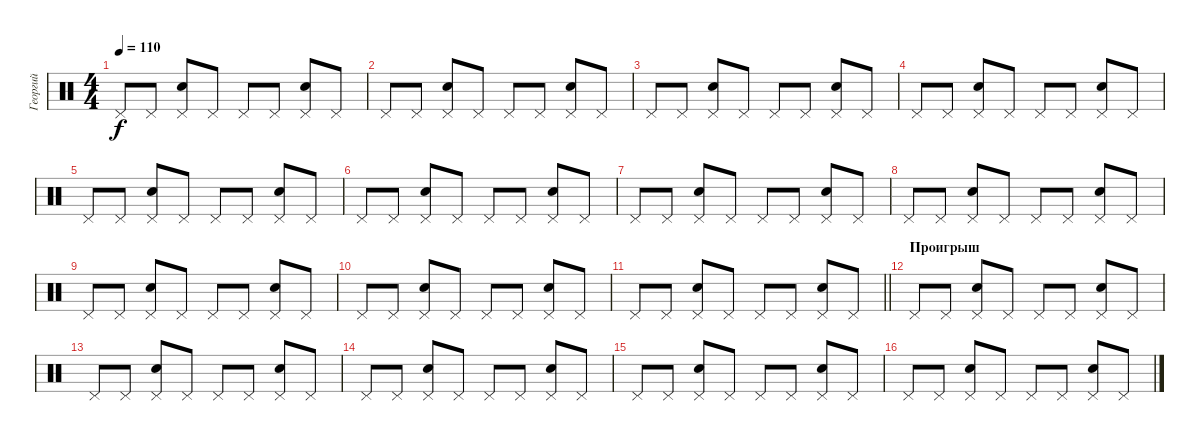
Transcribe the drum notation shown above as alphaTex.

\track ("Георгий" "Георгий") {instrument percussion}
\staff {score}
\articulation defaults
\ts (4 4)
\tempo 110
\clef neutral
\ks c "Pedal Hi-Hat (hit)".8{dy f} "Pedal Hi-Hat (hit)".8
("Pedal Hi-Hat (hit)" "Snare (hit) 2").8 "Pedal Hi-Hat (hit)".8 "Pedal Hi-Hat (hit)".8 "Pedal Hi-Hat (hit)".8 ("Pedal Hi-Hat (hit)" "Snare (hit) 2").8 "Pedal Hi-Hat (hit)".8 |
"Pedal Hi-Hat (hit)".8 "Pedal Hi-Hat (hit)".8 ("Pedal Hi-Hat (hit)" "Snare (hit) 2").8 "Pedal Hi-Hat (hit)".8 "Pedal Hi-Hat (hit)".8 "Pedal Hi-Hat (hit)".8 ("Pedal Hi-Hat (hit)" "Snare (hit) 2").8 "Pedal Hi-Hat (hit)".8 |
"Pedal Hi-Hat (hit)".8 "Pedal Hi-Hat (hit)".8 ("Pedal Hi-Hat (hit)" "Snare (hit) 2").8 "Pedal Hi-Hat (hit)".8 "Pedal Hi-Hat (hit)".8 "Pedal Hi-Hat (hit)".8 ("Pedal Hi-Hat (hit)" "Snare (hit) 2").8 "Pedal Hi-Hat (hit)".8 |
"Pedal Hi-Hat (hit)".8 "Pedal Hi-Hat (hit)".8 ("Pedal Hi-Hat (hit)" "Snare (hit) 2").8 "Pedal Hi-Hat (hit)".8 "Pedal Hi-Hat (hit)".8 "Pedal Hi-Hat (hit)".8 ("Pedal Hi-Hat (hit)" "Snare (hit) 2").8 "Pedal Hi-Hat (hit)".8 |
"Pedal Hi-Hat (hit)".8 "Pedal Hi-Hat (hit)".8 ("Pedal Hi-Hat (hit)" "Snare (hit) 2").8 "Pedal Hi-Hat (hit)".8 "Pedal Hi-Hat (hit)".8 "Pedal Hi-Hat (hit)".8 ("Pedal Hi-Hat (hit)" "Snare (hit) 2").8 "Pedal Hi-Hat (hit)".8 |
"Pedal Hi-Hat (hit)".8 "Pedal Hi-Hat (hit)".8 ("Pedal Hi-Hat (hit)" "Snare (hit) 2").8 "Pedal Hi-Hat (hit)".8 "Pedal Hi-Hat (hit)".8 "Pedal Hi-Hat (hit)".8 ("Pedal Hi-Hat (hit)" "Snare (hit) 2").8 "Pedal Hi-Hat (hit)".8 |
"Pedal Hi-Hat (hit)".8 "Pedal Hi-Hat (hit)".8 ("Pedal Hi-Hat (hit)" "Snare (hit) 2").8 "Pedal Hi-Hat (hit)".8 "Pedal Hi-Hat (hit)".8 "Pedal Hi-Hat (hit)".8 ("Pedal Hi-Hat (hit)" "Snare (hit) 2").8 "Pedal Hi-Hat (hit)".8 |
"Pedal Hi-Hat (hit)".8 "Pedal Hi-Hat (hit)".8 ("Pedal Hi-Hat (hit)" "Snare (hit) 2").8 "Pedal Hi-Hat (hit)".8 "Pedal Hi-Hat (hit)".8 "Pedal Hi-Hat (hit)".8 ("Pedal Hi-Hat (hit)" "Snare (hit) 2").8 "Pedal Hi-Hat (hit)".8 |
"Pedal Hi-Hat (hit)".8 "Pedal Hi-Hat (hit)".8 ("Pedal Hi-Hat (hit)" "Snare (hit) 2").8 "Pedal Hi-Hat (hit)".8 "Pedal Hi-Hat (hit)".8 "Pedal Hi-Hat (hit)".8 ("Pedal Hi-Hat (hit)" "Snare (hit) 2").8 "Pedal Hi-Hat (hit)".8 |
"Pedal Hi-Hat (hit)".8 "Pedal Hi-Hat (hit)".8 ("Pedal Hi-Hat (hit)" "Snare (hit) 2").8 "Pedal Hi-Hat (hit)".8 "Pedal Hi-Hat (hit)".8 "Pedal Hi-Hat (hit)".8 ("Pedal Hi-Hat (hit)" "Snare (hit) 2").8 "Pedal Hi-Hat (hit)".8 |
\barLineRight lightlight "Pedal Hi-Hat (hit)".8 "Pedal Hi-Hat (hit)".8
("Pedal Hi-Hat (hit)" "Snare (hit) 2").8 "Pedal Hi-Hat (hit)".8 "Pedal Hi-Hat (hit)".8 "Pedal Hi-Hat (hit)".8 ("Pedal Hi-Hat (hit)" "Snare (hit) 2").8 "Pedal Hi-Hat (hit)".8 |
\section ("" "Проигрыш")
"Pedal Hi-Hat (hit)".8 "Pedal Hi-Hat (hit)".8 ("Pedal Hi-Hat (hit)" "Snare (hit) 2").8 "Pedal Hi-Hat (hit)".8 "Pedal Hi-Hat (hit)".8 "Pedal Hi-Hat (hit)".8 ("Pedal Hi-Hat (hit)" "Snare (hit) 2").8 "Pedal Hi-Hat (hit)".8 |
"Pedal Hi-Hat (hit)".8 "Pedal Hi-Hat (hit)".8 ("Pedal Hi-Hat (hit)" "Snare (hit) 2").8 "Pedal Hi-Hat (hit)".8 "Pedal Hi-Hat (hit)".8 "Pedal Hi-Hat (hit)".8 ("Pedal Hi-Hat (hit)" "Snare (hit) 2").8 "Pedal Hi-Hat (hit)".8 |
"Pedal Hi-Hat (hit)".8 "Pedal Hi-Hat (hit)".8 ("Pedal Hi-Hat (hit)" "Snare (hit) 2").8 "Pedal Hi-Hat (hit)".8 "Pedal Hi-Hat (hit)".8 "Pedal Hi-Hat (hit)".8 ("Pedal Hi-Hat (hit)" "Snare (hit) 2").8 "Pedal Hi-Hat (hit)".8 |
"Pedal Hi-Hat (hit)".8 "Pedal Hi-Hat (hit)".8 ("Pedal Hi-Hat (hit)" "Snare (hit) 2").8 "Pedal Hi-Hat (hit)".8 "Pedal Hi-Hat (hit)".8 "Pedal Hi-Hat (hit)".8 ("Pedal Hi-Hat (hit)" "Snare (hit) 2").8 "Pedal Hi-Hat (hit)".8 |
"Pedal Hi-Hat (hit)".8 "Pedal Hi-Hat (hit)".8 ("Pedal Hi-Hat (hit)" "Snare (hit) 2").8 "Pedal Hi-Hat (hit)".8 "Pedal Hi-Hat (hit)".8 "Pedal Hi-Hat (hit)".8 ("Pedal Hi-Hat (hit)" "Snare (hit) 2").8 "Pedal Hi-Hat (hit)".8
